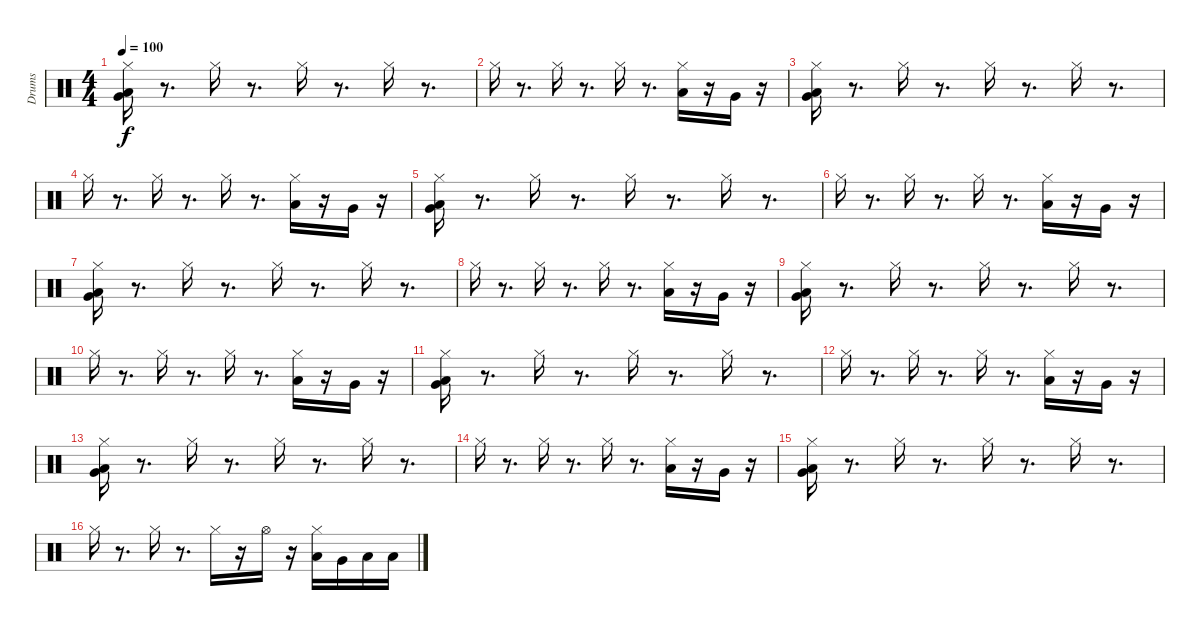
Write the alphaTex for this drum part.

\track ("Drums" "Drums") {instrument percussion}
\staff {score}
\articulation defaults
\ts (4 4)
\tempo 100
\clef neutral
\ks c
("Low Floor Tom (hit)" "Very Low Tom (hit)" "Hi-Hat (closed)").16{dy f} r.8{d} "Hi-Hat (closed)".16 r.8{d} "Hi-Hat (closed)".16 r.8{d} "Hi-Hat (closed)".16 r.8{d} |
"Hi-Hat (closed)".16 r.8{d} "Hi-Hat (closed)".16 r.8{d} "Hi-Hat (closed)".16 r.8{d} ("Low Tom (hit)" "Hi-Hat (closed)").16 r.16 "Very Low Tom (hit)".16 r.16 |
("Low Floor Tom (hit)" "Very Low Tom (hit)" "Hi-Hat (closed)").16 r.8{d} "Hi-Hat (closed)".16 r.8{d} "Hi-Hat (closed)".16 r.8{d} "Hi-Hat (closed)".16 r.8{d} |
"Hi-Hat (closed)".16 r.8{d} "Hi-Hat (closed)".16 r.8{d} "Hi-Hat (closed)".16 r.8{d} ("Low Tom (hit)" "Hi-Hat (closed)").16 r.16 "Very Low Tom (hit)".16 r.16 |
("Low Floor Tom (hit)" "Very Low Tom (hit)" "Hi-Hat (closed)").16 r.8{d} "Hi-Hat (closed)".16 r.8{d} "Hi-Hat (closed)".16 r.8{d} "Hi-Hat (closed)".16 r.8{d} |
"Hi-Hat (closed)".16 r.8{d} "Hi-Hat (closed)".16 r.8{d} "Hi-Hat (closed)".16 r.8{d} ("Low Tom (hit)" "Hi-Hat (closed)").16 r.16 "Very Low Tom (hit)".16 r.16 |
("Low Floor Tom (hit)" "Very Low Tom (hit)" "Hi-Hat (closed)").16 r.8{d} "Hi-Hat (closed)".16 r.8{d} "Hi-Hat (closed)".16 r.8{d} "Hi-Hat (closed)".16 r.8{d} |
"Hi-Hat (closed)".16 r.8{d} "Hi-Hat (closed)".16 r.8{d} "Hi-Hat (closed)".16 r.8{d} ("Low Tom (hit)" "Hi-Hat (closed)").16 r.16 "Very Low Tom (hit)".16 r.16 |
("Low Floor Tom (hit)" "Very Low Tom (hit)" "Hi-Hat (closed)").16 r.8{d} "Hi-Hat (closed)".16 r.8{d} "Hi-Hat (closed)".16 r.8{d} "Hi-Hat (closed)".16 r.8{d} |
"Hi-Hat (closed)".16 r.8{d} "Hi-Hat (closed)".16 r.8{d} "Hi-Hat (closed)".16 r.8{d} ("Low Tom (hit)" "Hi-Hat (closed)").16 r.16 "Very Low Tom (hit)".16 r.16 |
("Low Floor Tom (hit)" "Very Low Tom (hit)" "Hi-Hat (closed)").16 r.8{d} "Hi-Hat (closed)".16 r.8{d} "Hi-Hat (closed)".16 r.8{d} "Hi-Hat (closed)".16 r.8{d} |
"Hi-Hat (closed)".16 r.8{d} "Hi-Hat (closed)".16 r.8{d} "Hi-Hat (closed)".16 r.8{d} ("Low Tom (hit)" "Hi-Hat (closed)").16 r.16 "Very Low Tom (hit)".16 r.16 |
("Low Floor Tom (hit)" "Very Low Tom (hit)" "Hi-Hat (closed)").16 r.8{d} "Hi-Hat (closed)".16 r.8{d} "Hi-Hat (closed)".16 r.8{d} "Hi-Hat (closed)".16 r.8{d} |
"Hi-Hat (closed)".16 r.8{d} "Hi-Hat (closed)".16 r.8{d} "Hi-Hat (closed)".16 r.8{d} ("Low Tom (hit)" "Hi-Hat (closed)").16 r.16 "Very Low Tom (hit)".16 r.16 |
("Low Floor Tom (hit)" "Very Low Tom (hit)" "Hi-Hat (closed)").16 r.8{d} "Hi-Hat (closed)".16 r.8{d} "Hi-Hat (closed)".16 r.8{d} "Hi-Hat (closed)".16 r.8{d} |
"Hi-Hat (closed)".16 r.8{d} "Hi-Hat (closed)".16 r.8{d} "Hi-Hat (closed)".16 r.16 "Hi-Hat (open)".16 r.16 ("Low Tom (hit)" "Hi-Hat (closed)").16 "Very Low Tom (hit)".16 "Low Floor Tom (hit)".16 "Low Tom (hit)".16
